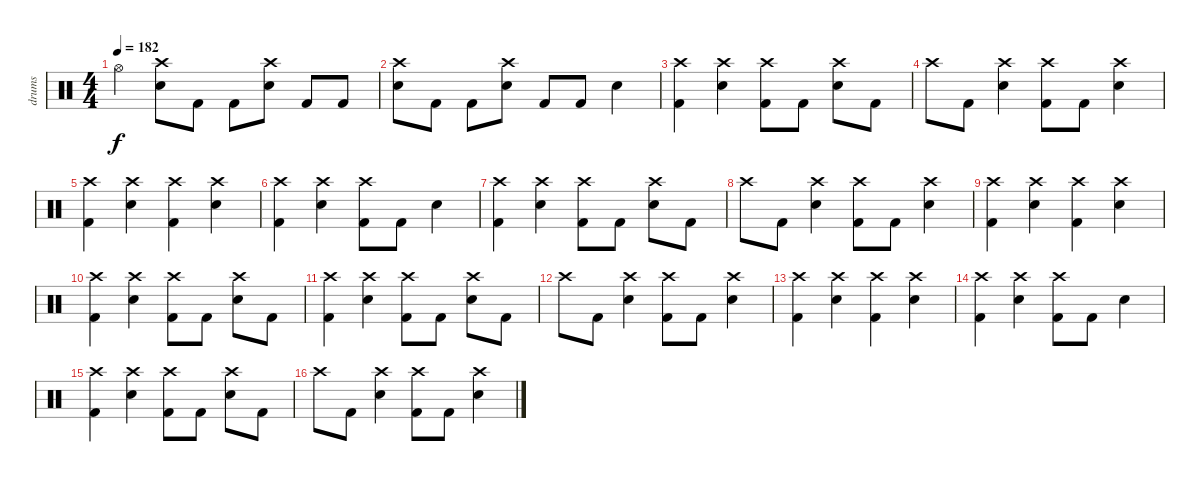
\track ("drums" "drums") {instrument percussion}
\staff {score}
\articulation defaults
\ts (4 4)
\tempo 182
\clef neutral
\ks c "Hi-Hat (open)".4{dy f}
("Crash high (hit)" "Electric Snare (hit)").8 "Kick (hit) 2".8 "Kick (hit) 2".8 ("Crash high (hit)" "Electric Snare (hit)").8 "Kick (hit) 2".8 "Kick (hit) 2".8 |
("Crash high (hit)" "Electric Snare (hit)").8 "Kick (hit) 2".8 "Kick (hit) 2".8 ("Crash high (hit)" "Electric Snare (hit)").8 "Kick (hit) 2".8 "Kick (hit) 2".8 "Electric Snare (hit)".4 |
("Crash high (hit)" "Kick (hit) 2").4 ("Crash high (hit)" "Electric Snare (hit)").4 ("Crash high (hit)" "Kick (hit) 2").8 "Kick (hit) 2".8 ("Crash high (hit)" "Electric Snare (hit)").8 "Kick (hit) 2".8 |
"Crash high (hit)".8 "Kick (hit) 2".8 ("Crash high (hit)" "Electric Snare (hit)").4 ("Crash high (hit)" "Kick (hit) 2").8 "Kick (hit) 2".8 ("Crash high (hit)" "Electric Snare (hit)").4 |
("Crash high (hit)" "Kick (hit) 2").4 ("Crash high (hit)" "Electric Snare (hit)").4 ("Crash high (hit)" "Kick (hit) 2").4 ("Crash high (hit)" "Electric Snare (hit)").4 |
("Crash high (hit)" "Kick (hit) 2").4 ("Crash high (hit)" "Electric Snare (hit)").4 ("Crash high (hit)" "Kick (hit) 2").8 "Kick (hit) 2".8 "Electric Snare (hit)".4 |
("Crash high (hit)" "Kick (hit) 2").4 ("Crash high (hit)" "Electric Snare (hit)").4 ("Crash high (hit)" "Kick (hit) 2").8 "Kick (hit) 2".8 ("Crash high (hit)" "Electric Snare (hit)").8 "Kick (hit) 2".8 |
"Crash high (hit)".8 "Kick (hit) 2".8 ("Crash high (hit)" "Electric Snare (hit)").4 ("Crash high (hit)" "Kick (hit) 2").8 "Kick (hit) 2".8 ("Crash high (hit)" "Electric Snare (hit)").4 |
("Crash high (hit)" "Kick (hit) 2").4 ("Crash high (hit)" "Electric Snare (hit)").4 ("Crash high (hit)" "Kick (hit) 2").4 ("Crash high (hit)" "Electric Snare (hit)").4 |
("Crash high (hit)" "Kick (hit) 2").4 ("Crash high (hit)" "Electric Snare (hit)").4 ("Crash high (hit)" "Kick (hit) 2").8 "Kick (hit) 2".8 ("Crash high (hit)" "Electric Snare (hit)").8 "Kick (hit) 2".8 |
("Crash high (hit)" "Kick (hit) 2").4 ("Crash high (hit)" "Electric Snare (hit)").4 ("Crash high (hit)" "Kick (hit) 2").8 "Kick (hit) 2".8 ("Crash high (hit)" "Electric Snare (hit)").8 "Kick (hit) 2".8 |
"Crash high (hit)".8 "Kick (hit) 2".8 ("Crash high (hit)" "Electric Snare (hit)").4 ("Crash high (hit)" "Kick (hit) 2").8 "Kick (hit) 2".8 ("Crash high (hit)" "Electric Snare (hit)").4 |
("Crash high (hit)" "Kick (hit) 2").4 ("Crash high (hit)" "Electric Snare (hit)").4 ("Crash high (hit)" "Kick (hit) 2").4 ("Crash high (hit)" "Electric Snare (hit)").4 |
("Crash high (hit)" "Kick (hit) 2").4 ("Crash high (hit)" "Electric Snare (hit)").4 ("Crash high (hit)" "Kick (hit) 2").8 "Kick (hit) 2".8 "Electric Snare (hit)".4 |
("Crash high (hit)" "Kick (hit) 2").4 ("Crash high (hit)" "Electric Snare (hit)").4 ("Crash high (hit)" "Kick (hit) 2").8 "Kick (hit) 2".8 ("Crash high (hit)" "Electric Snare (hit)").8 "Kick (hit) 2".8 |
"Crash high (hit)".8 "Kick (hit) 2".8 ("Crash high (hit)" "Electric Snare (hit)").4 ("Crash high (hit)" "Kick (hit) 2").8 "Kick (hit) 2".8 ("Crash high (hit)" "Electric Snare (hit)").4
